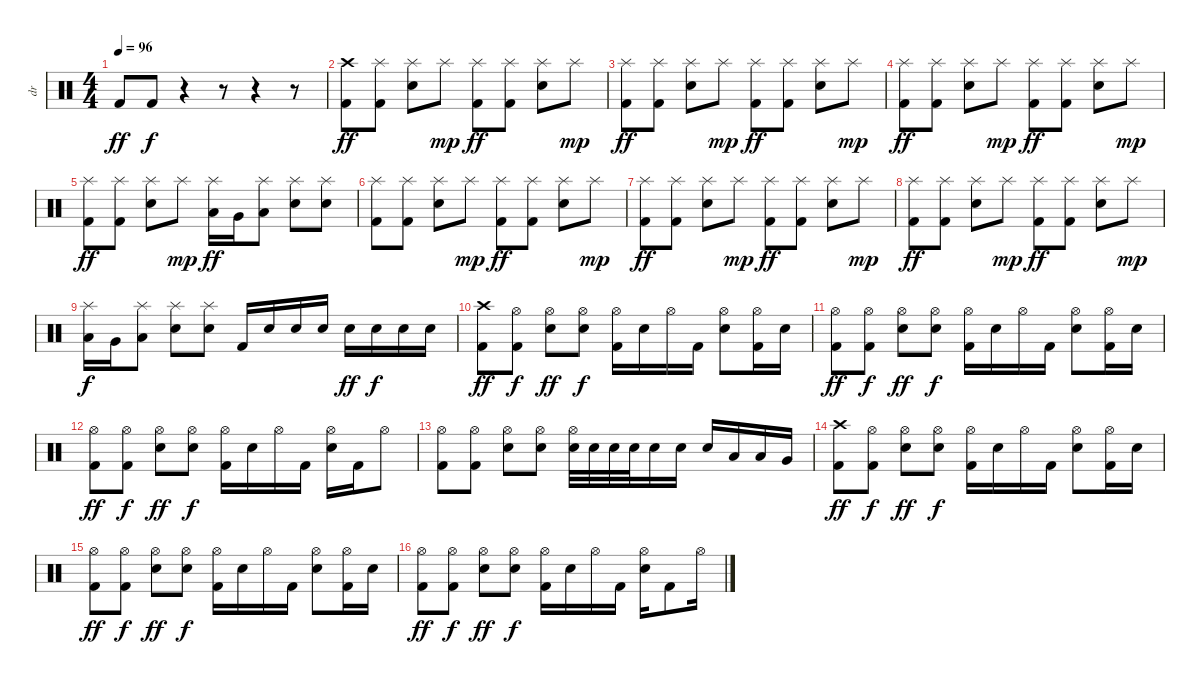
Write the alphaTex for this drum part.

\track ("dr" "dr") {instrument percussion}
\staff {score}
\articulation defaults
\ts (4 4)
\tempo 96
\clef neutral
\ks c "Kick (hit) 2".8{dy ff} "Kick (hit) 2".8{dy f}
r.4 r.8 r.4 r.8 |
("Crash high (hit)" "Kick (hit) 2").8{dy ff} ("Splash (hit)" "Kick (hit) 2").8 ("Splash (hit)" "Electric Snare (hit)").8 "Splash (hit)".8{dy mp} ("Splash (hit)" "Kick (hit) 2").8{dy ff} ("Splash (hit)" "Kick (hit) 2").8 ("Splash (hit)" "Electric Snare (hit)").8 "Splash (hit)".8{dy mp} |
("Splash (hit)" "Kick (hit) 2").8{dy ff} ("Splash (hit)" "Kick (hit) 2").8 ("Splash (hit)" "Electric Snare (hit)").8 "Splash (hit)".8{dy mp} ("Splash (hit)" "Kick (hit) 2").8{dy ff} ("Splash (hit)" "Kick (hit) 2").8 ("Splash (hit)" "Electric Snare (hit)").8 "Splash (hit)".8{dy mp} |
("Splash (hit)" "Kick (hit) 2").8{dy ff} ("Splash (hit)" "Kick (hit) 2").8 ("Splash (hit)" "Electric Snare (hit)").8 "Splash (hit)".8{dy mp} ("Splash (hit)" "Kick (hit) 2").8{dy ff} ("Splash (hit)" "Kick (hit) 2").8 ("Splash (hit)" "Electric Snare (hit)").8 "Splash (hit)".8{dy mp} |
("Splash (hit)" "Kick (hit) 2").8{dy ff} ("Splash (hit)" "Kick (hit) 2").8 ("Splash (hit)" "Electric Snare (hit)").8 "Splash (hit)".8{dy mp} ("Splash (hit)" "Low Floor Tom (hit)").16{dy ff} "Very Low Tom (hit)".16 ("Splash (hit)" "Low Floor Tom (hit)").8 ("Splash (hit)" "Electric Snare (hit)").8 ("Splash (hit)" "Electric Snare (hit)").8 |
("Splash (hit)" "Kick (hit) 2").8 ("Splash (hit)" "Kick (hit) 2").8 ("Splash (hit)" "Electric Snare (hit)").8 "Splash (hit)".8{dy mp} ("Splash (hit)" "Kick (hit) 2").8{dy ff} ("Splash (hit)" "Kick (hit) 2").8 ("Splash (hit)" "Electric Snare (hit)").8 "Splash (hit)".8{dy mp} |
("Splash (hit)" "Kick (hit) 2").8{dy ff} ("Splash (hit)" "Kick (hit) 2").8 ("Splash (hit)" "Electric Snare (hit)").8 "Splash (hit)".8{dy mp} ("Splash (hit)" "Kick (hit) 2").8{dy ff} ("Splash (hit)" "Kick (hit) 2").8 ("Splash (hit)" "Electric Snare (hit)").8 "Splash (hit)".8{dy mp} |
("Splash (hit)" "Kick (hit) 2").8{dy ff} ("Splash (hit)" "Kick (hit) 2").8 ("Splash (hit)" "Electric Snare (hit)").8 "Splash (hit)".8{dy mp} ("Splash (hit)" "Kick (hit) 2").8{dy ff} ("Splash (hit)" "Kick (hit) 2").8 ("Splash (hit)" "Electric Snare (hit)").8 "Splash (hit)".8{dy mp} |
("Splash (hit)" "Low Floor Tom (hit)").16{dy f} "Very Low Tom (hit)".16 ("Splash (hit)" "Low Floor Tom (hit)").8 ("Splash (hit)" "Electric Snare (hit)").8 ("Splash (hit)" "Electric Snare (hit)").8 "Kick (hit) 2".16 "Electric Snare (hit)".16 "Electric Snare (hit)".16 "Electric Snare (hit)".16 "Electric Snare (hit)".16{dy ff} "Electric Snare (hit)".16{dy f} "Electric Snare (hit)".16 "Electric Snare (hit)".16 |
("Crash high (hit)" "Kick (hit) 2").8{dy ff} ("Hi-Hat (open)" "Kick (hit) 2").8{dy f} ("Hi-Hat (open)" "Electric Snare (hit)").8{dy ff} ("Hi-Hat (open)" "Electric Snare (hit)").8{dy f} ("Hi-Hat (open)" "Kick (hit) 2").16 "Electric Snare (hit)".16 "Hi-Hat (open)".16 "Kick (hit) 2".16 ("Hi-Hat (open)" "Electric Snare (hit)").8 ("Hi-Hat (open)" "Kick (hit) 2").16 "Electric Snare (hit)".16 |
("Hi-Hat (open)" "Kick (hit) 2").8{dy ff} ("Hi-Hat (open)" "Kick (hit) 2").8{dy f} ("Hi-Hat (open)" "Electric Snare (hit)").8{dy ff} ("Hi-Hat (open)" "Electric Snare (hit)").8{dy f} ("Hi-Hat (open)" "Kick (hit) 2").16 "Electric Snare (hit)".16 "Hi-Hat (open)".16 "Kick (hit) 2".16 ("Hi-Hat (open)" "Electric Snare (hit)").8 ("Hi-Hat (open)" "Kick (hit) 2").16 "Electric Snare (hit)".16 |
("Hi-Hat (open)" "Kick (hit) 2").8{dy ff} ("Hi-Hat (open)" "Kick (hit) 2").8{dy f} ("Hi-Hat (open)" "Electric Snare (hit)").8{dy ff} ("Hi-Hat (open)" "Electric Snare (hit)").8{dy f} ("Hi-Hat (open)" "Kick (hit) 2").16 "Electric Snare (hit)".16 "Hi-Hat (open)".16 "Kick (hit) 2".16 ("Hi-Hat (open)" "Electric Snare (hit)").16 "Kick (hit) 2".16 "Hi-Hat (open)".8 |
("Hi-Hat (open)" "Kick (hit) 2").8 ("Hi-Hat (open)" "Kick (hit) 2").8 ("Hi-Hat (open)" "Electric Snare (hit)").8 ("Hi-Hat (open)" "Electric Snare (hit)").8 ("Hi-Hat (open)" "Electric Snare (hit)").32 "Electric Snare (hit)".32 "Electric Snare (hit)".32 "Electric Snare (hit)".32 "Electric Snare (hit)".16 "Electric Snare (hit)".16 "Electric Snare (hit)".16 "Low Tom (hit)".16 "Low Tom (hit)".16 "Very Low Tom (hit)".16 |
("Crash high (hit)" "Kick (hit) 2").8{dy ff} ("Hi-Hat (open)" "Kick (hit) 2").8{dy f} ("Hi-Hat (open)" "Electric Snare (hit)").8{dy ff} ("Hi-Hat (open)" "Electric Snare (hit)").8{dy f} ("Hi-Hat (open)" "Kick (hit) 2").16 "Electric Snare (hit)".16 "Hi-Hat (open)".16 "Kick (hit) 2".16 ("Hi-Hat (open)" "Electric Snare (hit)").8 ("Hi-Hat (open)" "Kick (hit) 2").16 "Electric Snare (hit)".16 |
("Hi-Hat (open)" "Kick (hit) 2").8{dy ff} ("Hi-Hat (open)" "Kick (hit) 2").8{dy f} ("Hi-Hat (open)" "Electric Snare (hit)").8{dy ff} ("Hi-Hat (open)" "Electric Snare (hit)").8{dy f} ("Hi-Hat (open)" "Kick (hit) 2").16 "Electric Snare (hit)".16 "Hi-Hat (open)".16 "Kick (hit) 2".16 ("Hi-Hat (open)" "Electric Snare (hit)").8 ("Hi-Hat (open)" "Kick (hit) 2").16 "Electric Snare (hit)".16 |
("Hi-Hat (open)" "Kick (hit) 2").8{dy ff} ("Hi-Hat (open)" "Kick (hit) 2").8{dy f} ("Hi-Hat (open)" "Electric Snare (hit)").8{dy ff} ("Hi-Hat (open)" "Electric Snare (hit)").8{dy f} ("Hi-Hat (open)" "Kick (hit) 2").16 "Electric Snare (hit)".16 "Hi-Hat (open)".16 "Kick (hit) 2".16 ("Hi-Hat (open)" "Electric Snare (hit)").16 "Kick (hit) 2".8 "Hi-Hat (open)".16
